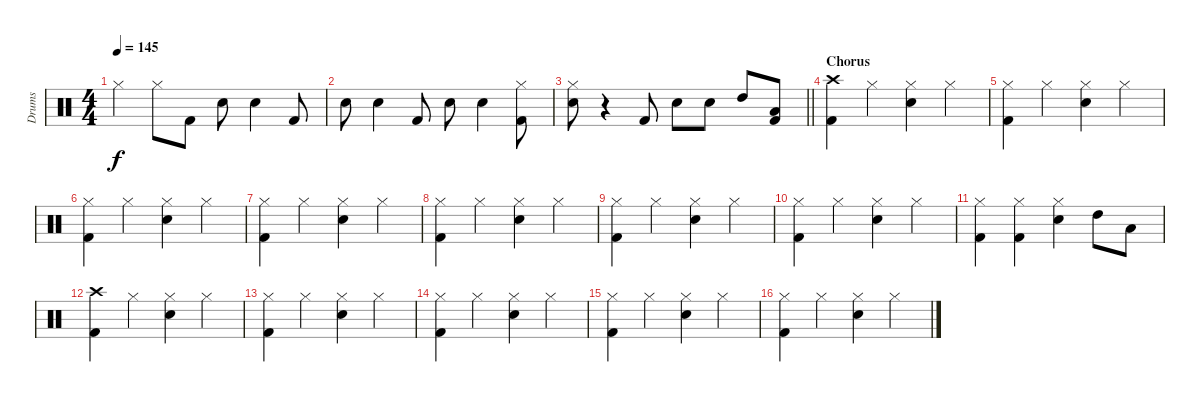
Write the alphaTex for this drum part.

\track ("Drums" "Drums") {instrument percussion}
\staff {score}
\articulation defaults
\ts (4 4)
\tempo 145
\clef neutral
\ks c "Hi-Hat (closed)".4{dy f} "Hi-Hat (closed)".8 "Kick (hit) 2".8 "Electric Snare (hit)".8 "Electric Snare (hit)".4 "Kick (hit) 2".8
|
"Electric Snare (hit)".8 "Electric Snare (hit)".4 "Kick (hit) 2".8 "Electric Snare (hit)".8 "Electric Snare (hit)".4 ("Hi-Hat (closed)" "Kick (hit) 2").8 |
\barLineRight lightlight
("Hi-Hat (closed)" "Electric Snare (hit)").8 r.4 "Kick (hit) 2".8 "Electric Snare (hit)".8 "Electric Snare (hit)".8 "High Tom (hit)".8 ("Low Tom (hit)" "Kick (hit) 2").8 |
\section ("" "Chorus")
("Crash high (hit)" "Kick (hit) 2").4 "Hi-Hat (closed)".4 ("Hi-Hat (closed)" "Electric Snare (hit)").4 "Hi-Hat (closed)".4 |
("Hi-Hat (closed)" "Kick (hit) 2").4 "Hi-Hat (closed)".4 ("Hi-Hat (closed)" "Electric Snare (hit)").4 "Hi-Hat (closed)".4 |
("Hi-Hat (closed)" "Kick (hit) 2").4 "Hi-Hat (closed)".4 ("Hi-Hat (closed)" "Electric Snare (hit)").4 "Hi-Hat (closed)".4 |
("Hi-Hat (closed)" "Kick (hit) 2").4 "Hi-Hat (closed)".4 ("Hi-Hat (closed)" "Electric Snare (hit)").4 "Hi-Hat (closed)".4 |
("Hi-Hat (closed)" "Kick (hit) 2").4 "Hi-Hat (closed)".4 ("Hi-Hat (closed)" "Electric Snare (hit)").4 "Hi-Hat (closed)".4 |
("Hi-Hat (closed)" "Kick (hit) 2").4 "Hi-Hat (closed)".4 ("Hi-Hat (closed)" "Electric Snare (hit)").4 "Hi-Hat (closed)".4 |
("Hi-Hat (closed)" "Kick (hit) 2").4 "Hi-Hat (closed)".4 ("Hi-Hat (closed)" "Electric Snare (hit)").4 "Hi-Hat (closed)".4 |
("Hi-Hat (closed)" "Kick (hit) 2").4 ("Hi-Hat (closed)" "Kick (hit) 2").4 ("Hi-Hat (closed)" "Electric Snare (hit)").4 "High Tom (hit)".8 "Low Tom (hit)".8 |
("Crash high (hit)" "Kick (hit) 2").4 "Hi-Hat (closed)".4 ("Hi-Hat (closed)" "Electric Snare (hit)").4 "Hi-Hat (closed)".4 |
("Hi-Hat (closed)" "Kick (hit) 2").4 "Hi-Hat (closed)".4 ("Hi-Hat (closed)" "Electric Snare (hit)").4 "Hi-Hat (closed)".4 |
("Hi-Hat (closed)" "Kick (hit) 2").4 "Hi-Hat (closed)".4 ("Hi-Hat (closed)" "Electric Snare (hit)").4 "Hi-Hat (closed)".4 |
("Hi-Hat (closed)" "Kick (hit) 2").4 "Hi-Hat (closed)".4 ("Hi-Hat (closed)" "Electric Snare (hit)").4 "Hi-Hat (closed)".4 |
("Hi-Hat (closed)" "Kick (hit) 2").4 "Hi-Hat (closed)".4 ("Hi-Hat (closed)" "Electric Snare (hit)").4 "Hi-Hat (closed)".4
